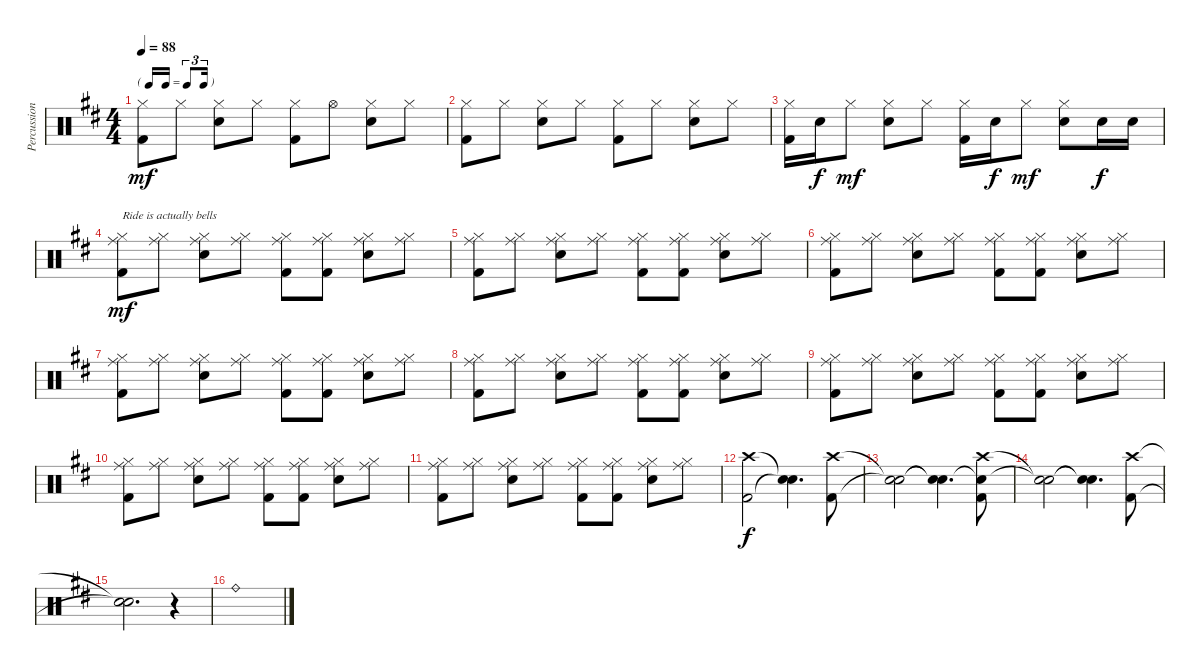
\track ("Percussion" "Percussion") {instrument percussion}
\staff {score}
\articulation defaults
\ts (4 4)
\tf triplet16th
\tempo 88
\clef neutral
\ks d
("Hi-Hat (closed)" "Kick (hit) 2").8{dy mf} "Hi-Hat (closed)".8 ("Hi-Hat (closed)" "Snare (hit) 2").8 "Hi-Hat (closed)".8 ("Hi-Hat (closed)" "Kick (hit) 2").8 "Hi-Hat (open)".8 ("Hi-Hat (closed)" "Snare (hit) 2").8 "Hi-Hat (closed)".8 |
("Hi-Hat (closed)" "Kick (hit) 2").8 "Hi-Hat (closed)".8 ("Hi-Hat (closed)" "Snare (hit) 2").8 "Hi-Hat (closed)".8 ("Hi-Hat (closed)" "Kick (hit) 2").8 "Hi-Hat (closed)".8 ("Hi-Hat (closed)" "Snare (hit) 2").8 "Hi-Hat (closed)".8 |
("Hi-Hat (closed)" "Kick (hit) 2").16 "Snare (hit) 2".16{dy f} "Hi-Hat (closed)".8{dy mf} ("Hi-Hat (closed)" "Snare (hit) 2").8 "Hi-Hat (closed)".8 ("Hi-Hat (closed)" "Kick (hit) 2").16 "Snare (hit) 2".16{dy f} "Hi-Hat (closed)".8{dy mf} ("Hi-Hat (closed)" "Snare (hit) 2").8 "Snare (hit) 2".16{dy f} "Snare (hit) 2".16 |
("Ride (middle)" "Hi-Hat (closed)" "Kick (hit) 2").8{txt "Ride is actually bells" dy mf} ("Ride (middle)" "Hi-Hat (closed)").8 ("Ride (middle)" "Hi-Hat (closed)" "Snare (hit) 2").8 ("Ride (middle)" "Hi-Hat (closed)").8 ("Ride (middle)" "Hi-Hat (closed)" "Kick (hit) 2").8 ("Ride (middle)" "Hi-Hat (closed)" "Kick (hit) 2").8 ("Ride (middle)" "Hi-Hat (closed)" "Snare (hit) 2").8 ("Ride (middle)" "Hi-Hat (closed)").8 |
("Ride (middle)" "Hi-Hat (closed)" "Kick (hit) 2").8 ("Ride (middle)" "Hi-Hat (closed)").8 ("Ride (middle)" "Hi-Hat (closed)" "Snare (hit) 2").8 ("Ride (middle)" "Hi-Hat (closed)").8 ("Ride (middle)" "Hi-Hat (closed)" "Kick (hit) 2").8 ("Ride (middle)" "Hi-Hat (closed)" "Kick (hit) 2").8 ("Ride (middle)" "Hi-Hat (closed)" "Snare (hit) 2").8 ("Ride (middle)" "Hi-Hat (closed)").8 |
("Ride (middle)" "Hi-Hat (closed)" "Kick (hit) 2").8 ("Ride (middle)" "Hi-Hat (closed)").8 ("Ride (middle)" "Hi-Hat (closed)" "Snare (hit) 2").8 ("Ride (middle)" "Hi-Hat (closed)").8 ("Ride (middle)" "Hi-Hat (closed)" "Kick (hit) 2").8 ("Ride (middle)" "Hi-Hat (closed)" "Kick (hit) 2").8 ("Ride (middle)" "Hi-Hat (closed)" "Snare (hit) 2").8 ("Ride (middle)" "Hi-Hat (closed)").8 |
("Ride (middle)" "Hi-Hat (closed)" "Kick (hit) 2").8 ("Ride (middle)" "Hi-Hat (closed)").8 ("Ride (middle)" "Hi-Hat (closed)" "Snare (hit) 2").8 ("Ride (middle)" "Hi-Hat (closed)").8 ("Ride (middle)" "Hi-Hat (closed)" "Kick (hit) 2").8 ("Ride (middle)" "Hi-Hat (closed)" "Kick (hit) 2").8 ("Ride (middle)" "Hi-Hat (closed)" "Snare (hit) 2").8 ("Ride (middle)" "Hi-Hat (closed)").8 |
("Ride (middle)" "Hi-Hat (closed)" "Kick (hit) 2").8 ("Ride (middle)" "Hi-Hat (closed)").8 ("Ride (middle)" "Hi-Hat (closed)" "Snare (hit) 2").8 ("Ride (middle)" "Hi-Hat (closed)").8 ("Ride (middle)" "Hi-Hat (closed)" "Kick (hit) 2").8 ("Ride (middle)" "Hi-Hat (closed)" "Kick (hit) 2").8 ("Ride (middle)" "Hi-Hat (closed)" "Snare (hit) 2").8 ("Ride (middle)" "Hi-Hat (closed)").8 |
("Ride (middle)" "Hi-Hat (closed)" "Kick (hit) 2").8 ("Ride (middle)" "Hi-Hat (closed)").8 ("Ride (middle)" "Hi-Hat (closed)" "Snare (hit) 2").8 ("Ride (middle)" "Hi-Hat (closed)").8 ("Ride (middle)" "Hi-Hat (closed)" "Kick (hit) 2").8 ("Ride (middle)" "Hi-Hat (closed)" "Kick (hit) 2").8 ("Ride (middle)" "Hi-Hat (closed)" "Snare (hit) 2").8 ("Ride (middle)" "Hi-Hat (closed)").8 |
("Ride (middle)" "Hi-Hat (closed)" "Kick (hit) 2").8 ("Ride (middle)" "Hi-Hat (closed)").8 ("Ride (middle)" "Hi-Hat (closed)" "Snare (hit) 2").8 ("Ride (middle)" "Hi-Hat (closed)").8 ("Ride (middle)" "Hi-Hat (closed)" "Kick (hit) 2").8 ("Ride (middle)" "Hi-Hat (closed)" "Kick (hit) 2").8 ("Ride (middle)" "Hi-Hat (closed)" "Snare (hit) 2").8 ("Ride (middle)" "Hi-Hat (closed)").8 |
("Ride (middle)" "Hi-Hat (closed)" "Kick (hit) 2").8 ("Ride (middle)" "Hi-Hat (closed)").8 ("Ride (middle)" "Hi-Hat (closed)" "Snare (hit) 2").8 ("Ride (middle)" "Hi-Hat (closed)").8 ("Ride (middle)" "Hi-Hat (closed)" "Kick (hit) 2").8 ("Ride (middle)" "Hi-Hat (closed)" "Kick (hit) 2").8 ("Ride (middle)" "Hi-Hat (closed)" "Snare (hit) 2").8 ("Ride (middle)" "Hi-Hat (closed)").8 |
("Crash high (hit)" "Kick (hit) 2").2{dy f} ("Snare (hit)"{t} "Snare (hit)"{t}).4{d} ("Crash high (hit)" "Kick (hit) 2").8 |
("Snare (hit)"{t} "Snare (hit)"{t}).2 ("Snare (hit)"{t} "Snare (hit)"{t}).4{d} ("Crash high (hit)" "Snare (hit)"{t} "Kick (hit) 2").8 |
("Snare (hit)"{t} "Snare (hit)"{t}).2 ("Snare (hit)"{t} "Snare (hit)"{t}).4{d} ("Crash high (hit)" "Kick (hit) 2").8 |
("Snare (hit)"{t} "Snare (hit)"{t}).2{d} r.4 |
"Ride (bell)".1
